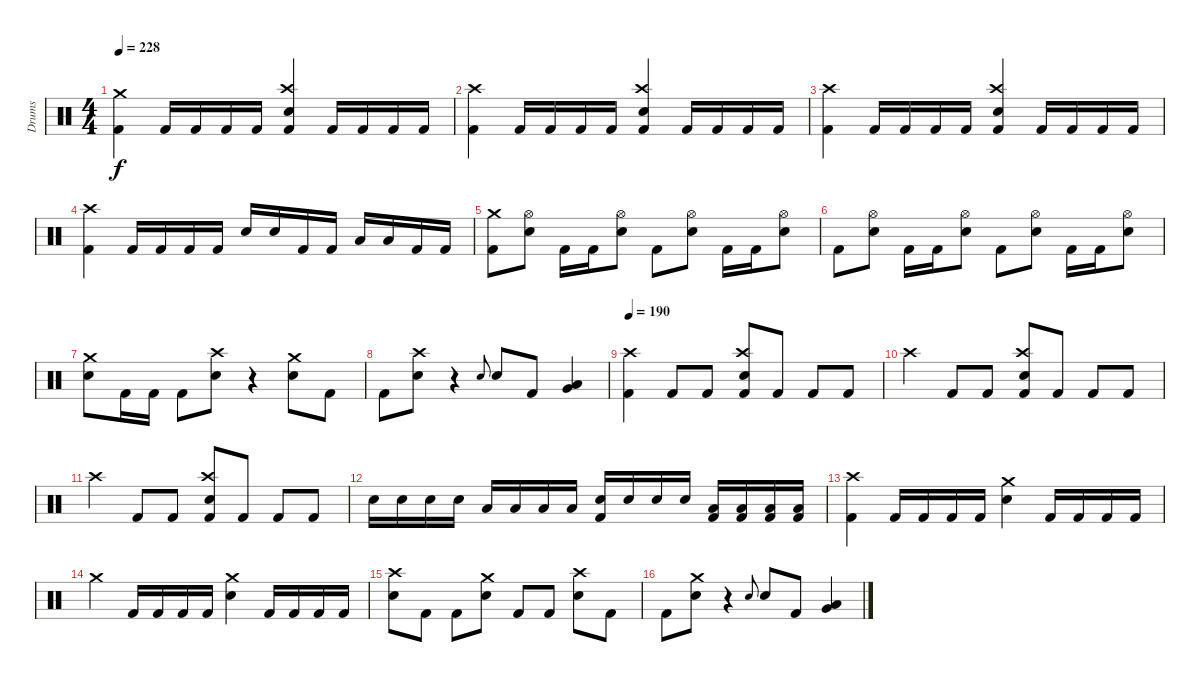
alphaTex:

\track ("Drums" "Drums") {instrument percussion}
\staff {score}
\articulation defaults
\ts (4 4)
\tempo 228
\clef neutral
\ks c
("Crash medium (hit)" "Kick (hit) 2").4{dy f} "Kick (hit) 2".16 "Kick (hit) 2".16 "Kick (hit) 2".16 "Kick (hit) 2".16 ("Crash high (hit)" "Electric Snare (hit)" "Kick (hit) 2").4 "Kick (hit) 2".16 "Kick (hit) 2".16 "Kick (hit) 2".16 "Kick (hit) 2".16 |
("Crash high (hit)" "Kick (hit) 2").4 "Kick (hit) 2".16 "Kick (hit) 2".16 "Kick (hit) 2".16 "Kick (hit) 2".16 ("Crash high (hit)" "Electric Snare (hit)" "Kick (hit) 2").4 "Kick (hit) 2".16 "Kick (hit) 2".16 "Kick (hit) 2".16 "Kick (hit) 2".16 |
("Crash high (hit)" "Kick (hit) 2").4 "Kick (hit) 2".16 "Kick (hit) 2".16 "Kick (hit) 2".16 "Kick (hit) 2".16 ("Crash high (hit)" "Electric Snare (hit)" "Kick (hit) 2").4 "Kick (hit) 2".16 "Kick (hit) 2".16 "Kick (hit) 2".16 "Kick (hit) 2".16 |
("Crash high (hit)" "Kick (hit) 2").4 "Kick (hit) 2".16 "Kick (hit) 2".16 "Kick (hit) 2".16 "Kick (hit) 2".16 "Electric Snare (hit)".16 "Electric Snare (hit)".16 "Kick (hit) 2".16 "Kick (hit) 2".16 "Low Tom (hit)".16 "Low Tom (hit)".16 "Kick (hit) 2".16 "Kick (hit) 2".16 |
("Crash medium (hit)" "Kick (hit) 2").8 ("Hi-Hat (open)" "Electric Snare (hit)").8 "Kick (hit) 2".16 "Kick (hit) 2".16 ("Hi-Hat (open)" "Electric Snare (hit)").8 "Kick (hit) 2".8 ("Hi-Hat (open)" "Electric Snare (hit)").8 "Kick (hit) 2".16 "Kick (hit) 2".16 ("Hi-Hat (open)" "Electric Snare (hit)").8 |
"Kick (hit) 2".8 ("Hi-Hat (open)" "Electric Snare (hit)").8 "Kick (hit) 2".16 "Kick (hit) 2".16 ("Hi-Hat (open)" "Electric Snare (hit)").8 "Kick (hit) 2".8 ("Hi-Hat (open)" "Electric Snare (hit)").8 "Kick (hit) 2".16 "Kick (hit) 2".16 ("Hi-Hat (open)" "Electric Snare (hit)").8 |
("Crash medium (hit)" "Electric Snare (hit)").8 "Kick (hit) 2".16 "Kick (hit) 2".16 "Kick (hit) 2".8 ("Crash high (hit)" "Electric Snare (hit)").8 r.4 ("Crash medium (hit)" "Electric Snare (hit)").8 "Kick (hit) 2".8 |
"Kick (hit) 2".8 ("Crash high (hit)" "Electric Snare (hit)").8 r.4 "Electric Snare (hit)".8{gr onbeat} "Electric Snare (hit)".8 "Kick (hit) 2".8 ("Very Low Tom (hit)" "Low Tom (hit)").4 |
\tempo 190
("Crash high (hit)" "Kick (hit) 2").4 "Kick (hit) 2".8 "Kick (hit) 2".8 ("Crash high (hit)" "Electric Snare (hit)" "Kick (hit) 2").8 "Kick (hit) 2".8 "Kick (hit) 2".8 "Kick (hit) 2".8 |
"Crash high (hit)".4 "Kick (hit) 2".8 "Kick (hit) 2".8 ("Crash high (hit)" "Electric Snare (hit)" "Kick (hit) 2").8 "Kick (hit) 2".8 "Kick (hit) 2".8 "Kick (hit) 2".8 |
"Crash high (hit)".4 "Kick (hit) 2".8 "Kick (hit) 2".8 ("Crash high (hit)" "Electric Snare (hit)" "Kick (hit) 2").8 "Kick (hit) 2".8 "Kick (hit) 2".8 "Kick (hit) 2".8 |
"Electric Snare (hit)".16 "Electric Snare (hit)".16 "Electric Snare (hit)".16 "Electric Snare (hit)".16 "Low Tom (hit)".16 "Low Tom (hit)".16 "Low Tom (hit)".16 "Low Tom (hit)".16 ("Electric Snare (hit)" "Kick (hit) 2").16 "Electric Snare (hit)".16 "Electric Snare (hit)".16 "Electric Snare (hit)".16 ("Low Tom (hit)" "Kick (hit) 2").16 ("Low Tom (hit)" "Kick (hit) 2").16 ("Low Tom (hit)" "Kick (hit) 2").16 ("Low Tom (hit)" "Kick (hit) 2").16 |
("Crash high (hit)" "Kick (hit) 2").4 "Kick (hit) 2".16 "Kick (hit) 2".16 "Kick (hit) 2".16 "Kick (hit) 2".16 ("Crash medium (hit)" "Electric Snare (hit)").4 "Kick (hit) 2".16 "Kick (hit) 2".16 "Kick (hit) 2".16 "Kick (hit) 2".16 |
"Crash medium (hit)".4 "Kick (hit) 2".16 "Kick (hit) 2".16 "Kick (hit) 2".16 "Kick (hit) 2".16 ("Crash medium (hit)" "Electric Snare (hit)").4 "Kick (hit) 2".16 "Kick (hit) 2".16 "Kick (hit) 2".16 "Kick (hit) 2".16 |
("Crash high (hit)" "Electric Snare (hit)").8 "Kick (hit) 2".8 "Kick (hit) 2".8 ("Crash medium (hit)" "Electric Snare (hit)").8 "Kick (hit) 2".8 "Kick (hit) 2".8 ("Crash high (hit)" "Electric Snare (hit)").8 "Kick (hit) 2".8 |
"Kick (hit) 2".8 ("Crash medium (hit)" "Electric Snare (hit)").8 r.4 "Electric Snare (hit)".8{gr onbeat} "Electric Snare (hit)".8 "Kick (hit) 2".8 ("Very Low Tom (hit)" "Low Tom (hit)").4
